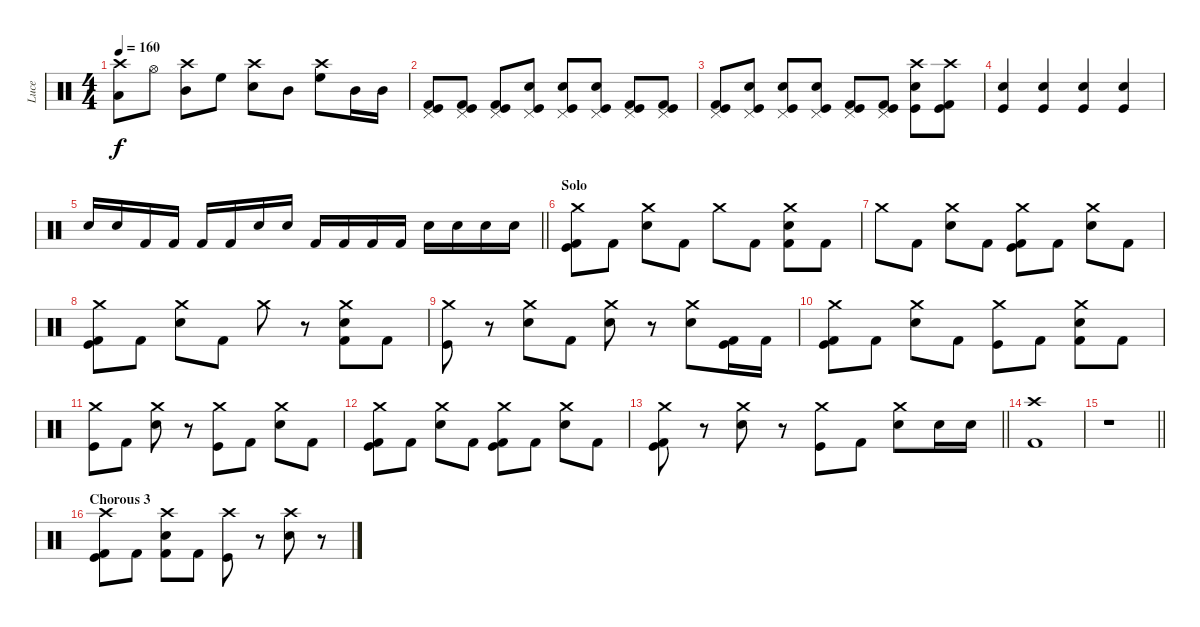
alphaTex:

\track ("Luce" "Luce") {instrument percussion}
\staff {score}
\articulation defaults
\ts (4 4)
\tempo 160
\clef neutral
\ks c
("Crash high (hit)" "Low Tom (hit)").8{dy f} "Hi-Hat (open)".8 ("Crash high (hit)" "Mid Tom (hit)").8 "High Floor Tom (hit)".8 ("Crash high (hit)" "Electric Snare (hit)").8 "Mid Tom (hit)".8 ("Crash high (hit)" "High Floor Tom (hit)").8 "Mid Tom (hit)".16 "Mid Tom (hit)".16 |
("Pedal Hi-Hat (hit)" "Kick (hit) 2" "Kick (hit)").8 ("Pedal Hi-Hat (hit)" "Kick (hit) 2" "Kick (hit)").8 ("Pedal Hi-Hat (hit)" "Kick (hit) 2" "Kick (hit)").8 ("Pedal Hi-Hat (hit)" "Snare (hit) 2" "Kick (hit)").8 ("Pedal Hi-Hat (hit)" "Snare (hit) 2" "Kick (hit)").8 ("Pedal Hi-Hat (hit)" "Snare (hit) 2" "Kick (hit)").8 ("Pedal Hi-Hat (hit)" "Kick (hit) 2" "Kick (hit)").8 ("Pedal Hi-Hat (hit)" "Kick (hit) 2" "Kick (hit)").8 |
("Pedal Hi-Hat (hit)" "Kick (hit) 2" "Kick (hit)").8 ("Pedal Hi-Hat (hit)" "Snare (hit) 2" "Kick (hit)").8 ("Pedal Hi-Hat (hit)" "Snare (hit) 2" "Kick (hit)").8 ("Pedal Hi-Hat (hit)" "Snare (hit) 2" "Kick (hit)").8 ("Pedal Hi-Hat (hit)" "Kick (hit) 2" "Kick (hit)").8 ("Pedal Hi-Hat (hit)" "Kick (hit) 2" "Kick (hit)").8 ("Crash high (hit)" "Snare (hit) 2" "Kick (hit)").8 ("Crash high (hit)" "Kick (hit) 2" "Kick (hit)").8 |
("Snare (hit) 2" "Kick (hit)").4 ("Snare (hit) 2" "Kick (hit)").4 ("Snare (hit) 2" "Kick (hit)").4 ("Snare (hit) 2" "Kick (hit)").4 |
\barLineRight lightlight "Electric Snare (hit)".16 "Electric Snare (hit)".16 "Kick (hit) 2".16 "Kick (hit) 2".16 "Kick (hit) 2".16 "Kick (hit) 2".16 "Electric Snare (hit)".16 "Electric Snare (hit)".16 "Kick (hit) 2".16 "Kick (hit) 2".16 "Kick (hit) 2".16 "Kick (hit) 2".16 "Electric Snare (hit)".16 "Electric Snare (hit)".16 "Electric Snare (hit)".16 "Electric Snare (hit)".16
|
\section ("" "Solo")
("Crash medium (hit)" "Kick (hit) 2" "Kick (hit)").8 "Kick (hit) 2".8 ("Crash medium (hit)" "Snare (hit) 2").8 "Kick (hit) 2".8 "Crash medium (hit)".8 "Kick (hit) 2".8 ("Crash medium (hit)" "Kick (hit) 2" "Snare (hit) 2").8 "Kick (hit) 2".8 |
"Crash medium (hit)".8 "Kick (hit) 2".8 ("Crash medium (hit)" "Snare (hit) 2").8 "Kick (hit) 2".8 ("Crash medium (hit)" "Kick (hit) 2" "Kick (hit)").8 "Kick (hit) 2".8 ("Crash medium (hit)" "Snare (hit) 2").8 "Kick (hit) 2".8 |
("Crash medium (hit)" "Kick (hit) 2" "Kick (hit)").8 "Kick (hit) 2".8 ("Crash medium (hit)" "Snare (hit) 2").8 "Kick (hit) 2".8 "Crash medium (hit)".8 r.8 ("Crash medium (hit)" "Kick (hit) 2" "Snare (hit) 2").8 "Kick (hit) 2".8 |
("Crash medium (hit)" "Kick (hit)").8 r.8 ("Crash medium (hit)" "Snare (hit) 2").8 "Kick (hit) 2".8 ("Crash medium (hit)" "Snare (hit) 2").8 r.8 ("Crash medium (hit)" "Snare (hit) 2").8 ("Kick (hit) 2" "Kick (hit)").16 "Kick (hit) 2".16 |
("Crash medium (hit)" "Kick (hit) 2" "Kick (hit)").8 "Kick (hit) 2".8 ("Crash medium (hit)" "Snare (hit) 2").8 "Kick (hit) 2".8 ("Crash medium (hit)" "Kick (hit)").8 "Kick (hit) 2".8 ("Crash medium (hit)" "Kick (hit) 2" "Snare (hit) 2").8 "Kick (hit) 2".8 |
("Crash medium (hit)" "Kick (hit)").8 "Kick (hit) 2".8 ("Crash medium (hit)" "Snare (hit) 2").8 r.8 ("Crash medium (hit)" "Kick (hit)").8 "Kick (hit) 2".8 ("Crash medium (hit)" "Snare (hit) 2").8 "Kick (hit) 2".8 |
("Crash medium (hit)" "Kick (hit) 2" "Kick (hit)").8 "Kick (hit) 2".8 ("Crash medium (hit)" "Snare (hit) 2").8 "Kick (hit) 2".8 ("Crash medium (hit)" "Kick (hit) 2" "Kick (hit)").8 "Kick (hit) 2".8 ("Crash medium (hit)" "Snare (hit) 2").8 "Kick (hit) 2".8 |
\barLineRight lightlight
("Crash medium (hit)" "Kick (hit) 2" "Kick (hit)").8 r.8 ("Crash medium (hit)" "Snare (hit) 2").8 r.8 ("Crash medium (hit)" "Kick (hit)").8 "Kick (hit) 2".8 ("Crash medium (hit)" "Snare (hit) 2").8 "Snare (hit) 2".16 "Snare (hit) 2".16 |
("Crash high (hit)" "Kick (hit) 2").1 |
\barLineRight lightlight
r.1 |
\section ("" "Chorous 3")
("Crash high (hit)" "Kick (hit) 2" "Kick (hit)").8 "Kick (hit) 2".8 ("Crash high (hit)" "Kick (hit) 2" "Snare (hit) 2").8 "Kick (hit) 2".8 ("Crash high (hit)" "Kick (hit)").8 r.8 ("Crash high (hit)" "Snare (hit) 2").8 r.8
